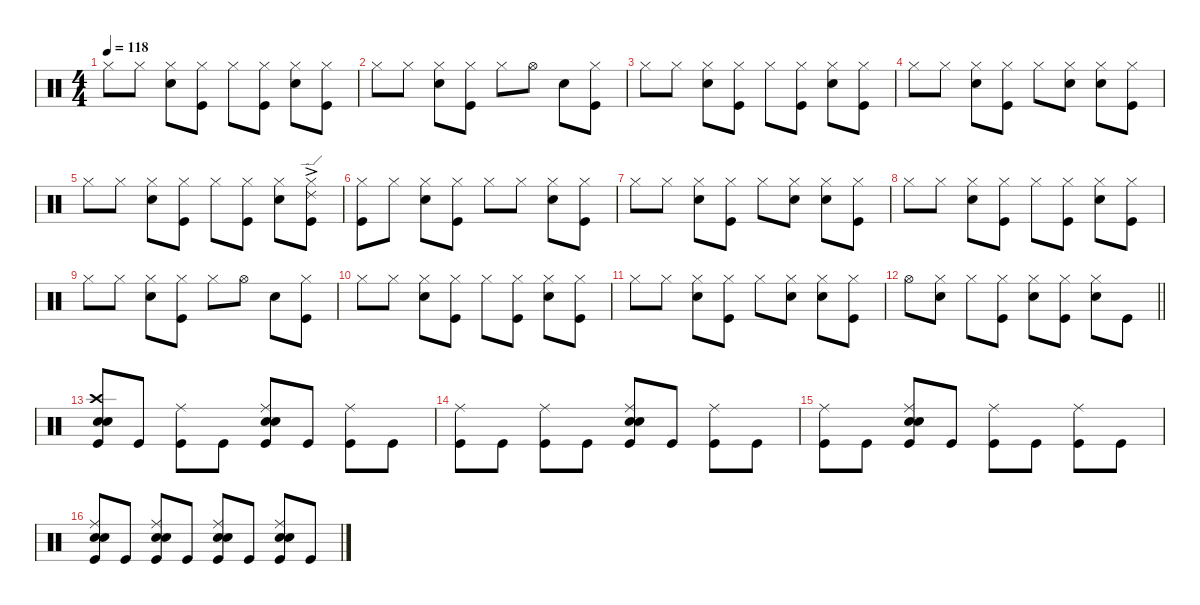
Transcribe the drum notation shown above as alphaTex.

\defaultSystemsLayout 4
\hideDynamics
\bracketExtendMode nobrackets
\singleTrackTrackNamePolicy hidden
\multiTrackTrackNamePolicy hidden
\firstSystemTrackNameMode fullname
\otherSystemsTrackNameOrientation horizontal
\track ("Drums" "drm.") {instrument percussion}
\staff {score}
\articulation defaults
\ts (4 4)
\tempo 118
\clef neutral
\ks c "Hi-Hat (closed)".8{dy f beam Down} "Hi-Hat (closed)".8{beam Down}
("Hi-Hat (closed)" "Snare (hit) 2").8{beam Down} ("Hi-Hat (closed)" "Kick (hit)").8{beam Down} "Hi-Hat (closed)".8{beam Down} ("Hi-Hat (closed)" "Kick (hit)").8{beam Down} ("Hi-Hat (closed)" "Snare (hit) 2").8{beam Down} ("Hi-Hat (closed)" "Kick (hit)").8{beam Down} |
"Hi-Hat (closed)".8{beam Down} "Hi-Hat (closed)".8{beam Down} ("Hi-Hat (closed)" "Snare (hit) 2").8{beam Down} ("Hi-Hat (closed)" "Kick (hit)").8{beam Down} "Hi-Hat (closed)".8{beam Down} "Hi-Hat (open)".8{beam Down} "Snare (hit) 2".8{beam Down} ("Hi-Hat (closed)" "Kick (hit)").8{beam Down} |
"Hi-Hat (closed)".8{beam Down} "Hi-Hat (closed)".8{beam Down} ("Hi-Hat (closed)" "Snare (hit) 2").8{beam Down} ("Hi-Hat (closed)" "Kick (hit)").8{beam Down} "Hi-Hat (closed)".8{beam Down} ("Hi-Hat (closed)" "Kick (hit)").8{beam Down} ("Hi-Hat (closed)" "Snare (hit) 2").8{beam Down} ("Hi-Hat (closed)" "Kick (hit)").8{beam Down} |
"Hi-Hat (closed)".8{beam Down} "Hi-Hat (closed)".8{beam Down} ("Hi-Hat (closed)" "Snare (hit) 2").8{beam Down} ("Hi-Hat (closed)" "Kick (hit)").8{beam Down} "Hi-Hat (closed)".8{beam Down} ("Hi-Hat (closed)" "Snare (hit) 2").8{beam Down} ("Hi-Hat (closed)" "Snare (hit) 2").8{beam Down} ("Hi-Hat (closed)" "Kick (hit)").8{beam Down} |
"Hi-Hat (closed)".8{beam Down} "Hi-Hat (closed)".8{beam Down} ("Hi-Hat (closed)" "Snare (hit) 2").8{beam Down} ("Hi-Hat (closed)" "Kick (hit)").8{beam Down} "Hi-Hat (closed)".8{beam Down} ("Hi-Hat (closed)" "Kick (hit)").8{beam Down} ("Hi-Hat (closed)" "Snare (hit) 2").8{beam Down} ("Hi-Hat (closed)" "Ride (edge) 2"{ac} "Kick (hit)").8{beam Down} |
("Hi-Hat (closed)" "Kick (hit)").8{beam Down} "Hi-Hat (closed)".8{beam Down} ("Hi-Hat (closed)" "Snare (hit) 2").8{beam Down} ("Hi-Hat (closed)" "Kick (hit)").8{beam Down} "Hi-Hat (closed)".8{beam Down} "Hi-Hat (closed)".8{beam Down} ("Hi-Hat (closed)" "Snare (hit) 2").8{beam Down} ("Hi-Hat (closed)" "Kick (hit)").8{beam Down} |
"Hi-Hat (closed)".8{beam Down} "Hi-Hat (closed)".8{beam Down} ("Hi-Hat (closed)" "Snare (hit) 2").8{beam Down} ("Hi-Hat (closed)" "Kick (hit)").8{beam Down} "Hi-Hat (closed)".8{beam Down} ("Hi-Hat (closed)" "Snare (hit) 2").8{beam Down} ("Hi-Hat (closed)" "Snare (hit) 2").8{beam Down} ("Hi-Hat (closed)" "Kick (hit)").8{beam Down} |
"Hi-Hat (closed)".8{beam Down} "Hi-Hat (closed)".8{beam Down} ("Hi-Hat (closed)" "Snare (hit) 2").8{beam Down} ("Hi-Hat (closed)" "Kick (hit)").8{beam Down} "Hi-Hat (closed)".8{beam Down} ("Hi-Hat (closed)" "Kick (hit)").8{beam Down} ("Hi-Hat (closed)" "Snare (hit) 2").8{beam Down} ("Hi-Hat (closed)" "Kick (hit)").8{beam Down} |
"Hi-Hat (closed)".8{beam Down} "Hi-Hat (closed)".8{beam Down} ("Hi-Hat (closed)" "Snare (hit) 2").8{beam Down} ("Hi-Hat (closed)" "Kick (hit)").8{beam Down} "Hi-Hat (closed)".8{beam Down} "Hi-Hat (open)".8{beam Down} "Snare (hit) 2".8{beam Down} ("Hi-Hat (closed)" "Kick (hit)").8{beam Down} |
"Hi-Hat (closed)".8{beam Down} "Hi-Hat (closed)".8{beam Down} ("Hi-Hat (closed)" "Snare (hit) 2").8{beam Down} ("Hi-Hat (closed)" "Kick (hit)").8{beam Down} "Hi-Hat (closed)".8{beam Down} ("Hi-Hat (closed)" "Kick (hit)").8{beam Down} ("Hi-Hat (closed)" "Snare (hit) 2").8{beam Down} ("Hi-Hat (closed)" "Kick (hit)").8{beam Down} |
"Hi-Hat (closed)".8{beam Down} "Hi-Hat (closed)".8{beam Down} ("Hi-Hat (closed)" "Snare (hit) 2").8{beam Down} ("Hi-Hat (closed)" "Kick (hit)").8{beam Down} "Hi-Hat (closed)".8{beam Down} ("Hi-Hat (closed)" "Snare (hit) 2").8{beam Down} ("Hi-Hat (closed)" "Snare (hit) 2").8{beam Down} ("Hi-Hat (closed)" "Kick (hit)").8{beam Down} |
\barLineRight lightlight "Hi-Hat (open)".8{beam Down}
("Hi-Hat (closed)" "Snare (hit) 2").8{beam Down} "Hi-Hat (closed)".8{beam Down} ("Hi-Hat (closed)" "Kick (hit)").8{beam Down} ("Hi-Hat (closed)" "Snare (hit) 2").8{beam Down} ("Hi-Hat (closed)" "Kick (hit)").8{beam Down} ("Hi-Hat (closed)" "Snare (hit) 2").8{beam Down} "Kick (hit)".8{beam Down} |
("Crash high (hit)" "Snare (hit) 2" "Snare (hit) 2" "Kick (hit)").8{beam Up} "Kick (hit)".8{beam Up} ("Ride (middle)" "Kick (hit)").8{beam Down} "Kick (hit)".8{beam Down} ("Ride (middle)" "Snare (hit) 2" "Snare (hit) 2" "Kick (hit)").8{beam Up} "Kick (hit)".8{beam Up} ("Ride (middle)" "Kick (hit)").8{beam Down} "Kick (hit)".8{beam Down} |
("Ride (middle)" "Kick (hit)").8{beam Down} "Kick (hit)".8{beam Down} ("Ride (middle)" "Kick (hit)").8{beam Down} "Kick (hit)".8{beam Down} ("Ride (middle)" "Snare (hit) 2" "Snare (hit) 2" "Kick (hit)").8{beam Up} "Kick (hit)".8{beam Up} ("Ride (middle)" "Kick (hit)").8{beam Down} "Kick (hit)".8{beam Down} |
("Ride (middle)" "Kick (hit)").8{beam Down} "Kick (hit)".8{beam Down} ("Ride (middle)" "Snare (hit) 2" "Snare (hit) 2" "Kick (hit)").8{beam Up} "Kick (hit)".8{beam Up} ("Ride (middle)" "Kick (hit)").8{beam Down} "Kick (hit)".8{beam Down} ("Ride (middle)" "Kick (hit)").8{beam Down} "Kick (hit)".8{beam Down} |
("Ride (middle)" "Snare (hit) 2" "Snare (hit) 2" "Kick (hit)").8{beam Up} "Kick (hit)".8{beam Up} ("Ride (middle)" "Snare (hit) 2" "Snare (hit) 2" "Kick (hit)").8{beam Up} "Kick (hit)".8{beam Up} ("Ride (middle)" "Snare (hit) 2" "Snare (hit) 2" "Kick (hit)").8{beam Up} "Kick (hit)".8{beam Up} ("Ride (middle)" "Snare (hit) 2" "Snare (hit) 2" "Kick (hit)").8{beam Up} "Kick (hit)".8{beam Up}
